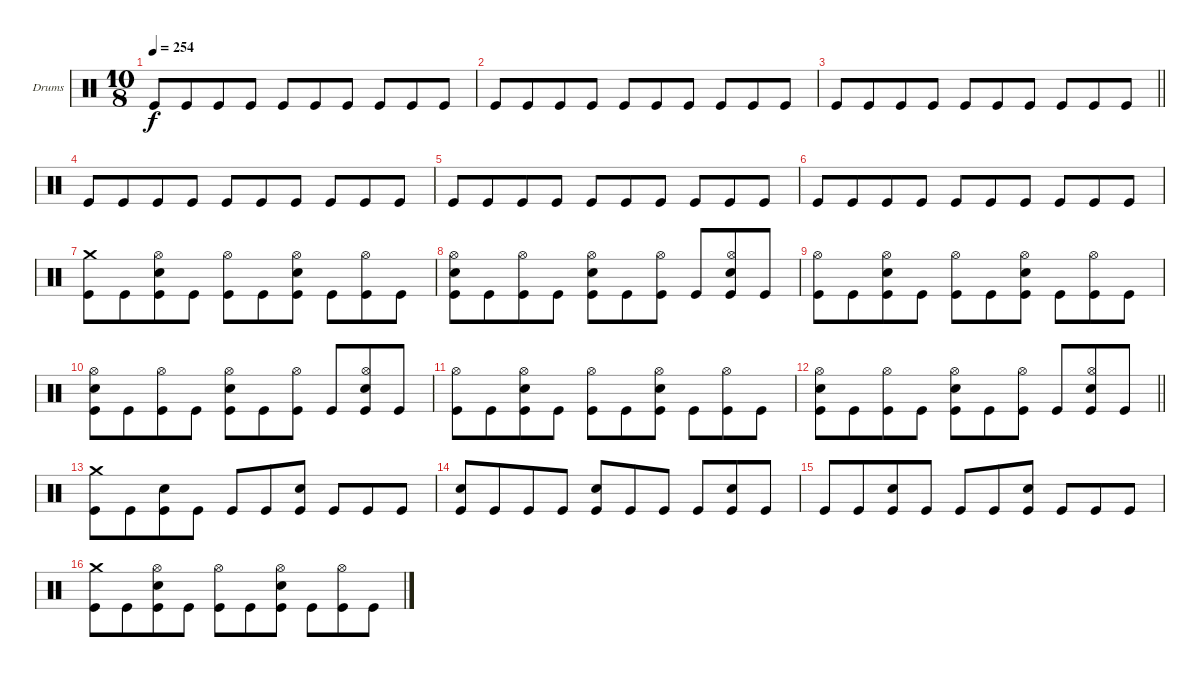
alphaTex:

\bracketExtendMode groupsimilarinstruments
\firstSystemTrackNameOrientation horizontal
\otherSystemsTrackNameOrientation horizontal
\track ("Drumkit" "Drums") {instrument percussion}
\staff {score}
\articulation defaults
\ts (10 8)
\tempo 254
\clef neutral
\ks c "Kick (hit)".8{dy f} "Kick (hit)".8 "Kick (hit)".8 "Kick (hit)".8 "Kick (hit)".8 "Kick (hit)".8 "Kick (hit)".8 "Kick (hit)".8 "Kick (hit)".8 "Kick (hit)".8
|
"Kick (hit)".8 "Kick (hit)".8 "Kick (hit)".8 "Kick (hit)".8 "Kick (hit)".8 "Kick (hit)".8 "Kick (hit)".8 "Kick (hit)".8 "Kick (hit)".8 "Kick (hit)".8 |
\barLineRight lightlight "Kick (hit)".8 "Kick (hit)".8 "Kick (hit)".8 "Kick (hit)".8 "Kick (hit)".8 "Kick (hit)".8 "Kick (hit)".8 "Kick (hit)".8 "Kick (hit)".8 "Kick (hit)".8
|
"Kick (hit)".8 "Kick (hit)".8 "Kick (hit)".8 "Kick (hit)".8 "Kick (hit)".8 "Kick (hit)".8 "Kick (hit)".8 "Kick (hit)".8 "Kick (hit)".8 "Kick (hit)".8 |
"Kick (hit)".8 "Kick (hit)".8 "Kick (hit)".8 "Kick (hit)".8 "Kick (hit)".8 "Kick (hit)".8 "Kick (hit)".8 "Kick (hit)".8 "Kick (hit)".8 "Kick (hit)".8 |
"Kick (hit)".8 "Kick (hit)".8 "Kick (hit)".8 "Kick (hit)".8 "Kick (hit)".8 "Kick (hit)".8 "Kick (hit)".8 "Kick (hit)".8 "Kick (hit)".8 "Kick (hit)".8 |
("Crash medium (hit)" "Kick (hit)").8 "Kick (hit)".8 ("Hi-Hat (open)" "Snare (hit) 2" "Kick (hit)").8 "Kick (hit)".8 ("Hi-Hat (open)" "Kick (hit)").8 "Kick (hit)".8 ("Hi-Hat (open)" "Snare (hit) 2" "Kick (hit)").8 "Kick (hit)".8 ("Hi-Hat (open)" "Kick (hit)").8 "Kick (hit)".8 |
("Hi-Hat (open)" "Snare (hit) 2" "Kick (hit)").8 "Kick (hit)".8 ("Hi-Hat (open)" "Kick (hit)").8 "Kick (hit)".8 ("Hi-Hat (open)" "Snare (hit) 2" "Kick (hit)").8 "Kick (hit)".8 ("Hi-Hat (open)" "Kick (hit)").8 "Kick (hit)".8 ("Hi-Hat (open)" "Snare (hit) 2" "Kick (hit)").8 "Kick (hit)".8 |
("Hi-Hat (open)" "Kick (hit)").8 "Kick (hit)".8 ("Hi-Hat (open)" "Snare (hit) 2" "Kick (hit)").8 "Kick (hit)".8 ("Hi-Hat (open)" "Kick (hit)").8 "Kick (hit)".8 ("Hi-Hat (open)" "Snare (hit) 2" "Kick (hit)").8 "Kick (hit)".8 ("Hi-Hat (open)" "Kick (hit)").8 "Kick (hit)".8 |
("Hi-Hat (open)" "Snare (hit) 2" "Kick (hit)").8 "Kick (hit)".8 ("Hi-Hat (open)" "Kick (hit)").8 "Kick (hit)".8 ("Hi-Hat (open)" "Snare (hit) 2" "Kick (hit)").8 "Kick (hit)".8 ("Hi-Hat (open)" "Kick (hit)").8 "Kick (hit)".8 ("Hi-Hat (open)" "Snare (hit) 2" "Kick (hit)").8 "Kick (hit)".8 |
("Hi-Hat (open)" "Kick (hit)").8 "Kick (hit)".8 ("Hi-Hat (open)" "Snare (hit) 2" "Kick (hit)").8 "Kick (hit)".8 ("Hi-Hat (open)" "Kick (hit)").8 "Kick (hit)".8 ("Hi-Hat (open)" "Snare (hit) 2" "Kick (hit)").8 "Kick (hit)".8 ("Hi-Hat (open)" "Kick (hit)").8 "Kick (hit)".8 |
\barLineRight lightlight
("Hi-Hat (open)" "Snare (hit) 2" "Kick (hit)").8 "Kick (hit)".8 ("Hi-Hat (open)" "Kick (hit)").8 "Kick (hit)".8 ("Hi-Hat (open)" "Snare (hit) 2" "Kick (hit)").8 "Kick (hit)".8 ("Hi-Hat (open)" "Kick (hit)").8 "Kick (hit)".8 ("Hi-Hat (open)" "Snare (hit) 2" "Kick (hit)").8 "Kick (hit)".8 |
("Crash medium (hit)" "Kick (hit)").8 "Kick (hit)".8 ("Snare (hit) 2" "Kick (hit)").8 "Kick (hit)".8 "Kick (hit)".8 "Kick (hit)".8 ("Snare (hit) 2" "Kick (hit)").8 "Kick (hit)".8 "Kick (hit)".8 "Kick (hit)".8 |
("Snare (hit) 2" "Kick (hit)").8 "Kick (hit)".8 "Kick (hit)".8 "Kick (hit)".8 ("Snare (hit) 2" "Kick (hit)").8 "Kick (hit)".8 "Kick (hit)".8 "Kick (hit)".8 ("Snare (hit) 2" "Kick (hit)").8 "Kick (hit)".8 |
"Kick (hit)".8 "Kick (hit)".8 ("Snare (hit) 2" "Kick (hit)").8 "Kick (hit)".8 "Kick (hit)".8 "Kick (hit)".8 ("Snare (hit) 2" "Kick (hit)").8 "Kick (hit)".8 "Kick (hit)".8 "Kick (hit)".8 |
("Crash medium (hit)" "Kick (hit)").8 "Kick (hit)".8 ("Hi-Hat (open)" "Snare (hit) 2" "Kick (hit)").8 "Kick (hit)".8 ("Hi-Hat (open)" "Kick (hit)").8 "Kick (hit)".8 ("Hi-Hat (open)" "Snare (hit) 2" "Kick (hit)").8 "Kick (hit)".8 ("Hi-Hat (open)" "Kick (hit)").8 "Kick (hit)".8
